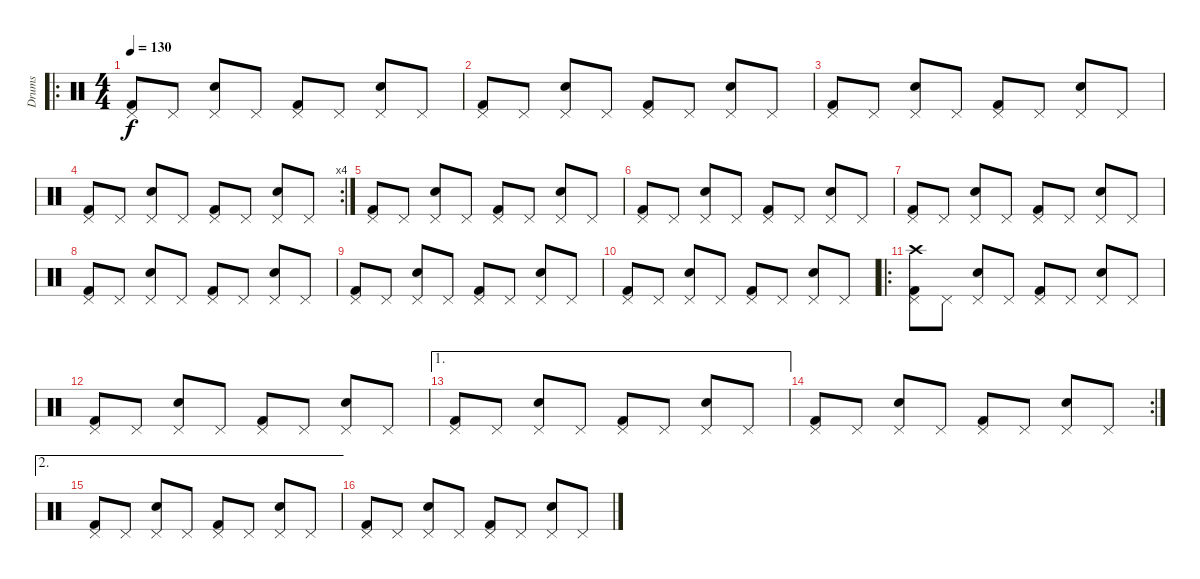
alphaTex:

\track ("Drums" "Drums") {instrument percussion}
\staff {score}
\articulation defaults
\ro
\ts (4 4)
\tempo 130
\clef neutral
\ks c
("Pedal Hi-Hat (hit)" "Kick (hit) 2").8{dy f} "Pedal Hi-Hat (hit)".8 ("Pedal Hi-Hat (hit)" "Snare (hit) 2").8 "Pedal Hi-Hat (hit)".8 ("Pedal Hi-Hat (hit)" "Kick (hit) 2").8 "Pedal Hi-Hat (hit)".8 ("Pedal Hi-Hat (hit)" "Snare (hit) 2").8 "Pedal Hi-Hat (hit)".8 |
("Pedal Hi-Hat (hit)" "Kick (hit) 2").8 "Pedal Hi-Hat (hit)".8 ("Pedal Hi-Hat (hit)" "Snare (hit) 2").8 "Pedal Hi-Hat (hit)".8 ("Pedal Hi-Hat (hit)" "Kick (hit) 2").8 "Pedal Hi-Hat (hit)".8 ("Pedal Hi-Hat (hit)" "Snare (hit) 2").8 "Pedal Hi-Hat (hit)".8 |
("Pedal Hi-Hat (hit)" "Kick (hit) 2").8 "Pedal Hi-Hat (hit)".8 ("Pedal Hi-Hat (hit)" "Snare (hit) 2").8 "Pedal Hi-Hat (hit)".8 ("Pedal Hi-Hat (hit)" "Kick (hit) 2").8 "Pedal Hi-Hat (hit)".8 ("Pedal Hi-Hat (hit)" "Snare (hit) 2").8 "Pedal Hi-Hat (hit)".8 |
\rc 4
("Pedal Hi-Hat (hit)" "Kick (hit) 2").8 "Pedal Hi-Hat (hit)".8 ("Pedal Hi-Hat (hit)" "Snare (hit) 2").8 "Pedal Hi-Hat (hit)".8 ("Pedal Hi-Hat (hit)" "Kick (hit) 2").8 "Pedal Hi-Hat (hit)".8 ("Pedal Hi-Hat (hit)" "Snare (hit) 2").8 "Pedal Hi-Hat (hit)".8 |
("Pedal Hi-Hat (hit)" "Kick (hit) 2").8 "Pedal Hi-Hat (hit)".8 ("Pedal Hi-Hat (hit)" "Snare (hit) 2").8 "Pedal Hi-Hat (hit)".8 ("Pedal Hi-Hat (hit)" "Kick (hit) 2").8 "Pedal Hi-Hat (hit)".8 ("Pedal Hi-Hat (hit)" "Snare (hit) 2").8 "Pedal Hi-Hat (hit)".8 |
("Pedal Hi-Hat (hit)" "Kick (hit) 2").8 "Pedal Hi-Hat (hit)".8 ("Pedal Hi-Hat (hit)" "Snare (hit) 2").8 "Pedal Hi-Hat (hit)".8 ("Pedal Hi-Hat (hit)" "Kick (hit) 2").8 "Pedal Hi-Hat (hit)".8 ("Pedal Hi-Hat (hit)" "Snare (hit) 2").8 "Pedal Hi-Hat (hit)".8 |
("Pedal Hi-Hat (hit)" "Kick (hit) 2").8 "Pedal Hi-Hat (hit)".8 ("Pedal Hi-Hat (hit)" "Snare (hit) 2").8 "Pedal Hi-Hat (hit)".8 ("Pedal Hi-Hat (hit)" "Kick (hit) 2").8 "Pedal Hi-Hat (hit)".8 ("Pedal Hi-Hat (hit)" "Snare (hit) 2").8 "Pedal Hi-Hat (hit)".8 |
("Pedal Hi-Hat (hit)" "Kick (hit) 2").8 "Pedal Hi-Hat (hit)".8 ("Pedal Hi-Hat (hit)" "Snare (hit) 2").8 "Pedal Hi-Hat (hit)".8 ("Pedal Hi-Hat (hit)" "Kick (hit) 2").8 "Pedal Hi-Hat (hit)".8 ("Pedal Hi-Hat (hit)" "Snare (hit) 2").8 "Pedal Hi-Hat (hit)".8 |
("Pedal Hi-Hat (hit)" "Kick (hit) 2").8 "Pedal Hi-Hat (hit)".8 ("Pedal Hi-Hat (hit)" "Snare (hit) 2").8 "Pedal Hi-Hat (hit)".8 ("Pedal Hi-Hat (hit)" "Kick (hit) 2").8 "Pedal Hi-Hat (hit)".8 ("Pedal Hi-Hat (hit)" "Snare (hit) 2").8 "Pedal Hi-Hat (hit)".8 |
("Pedal Hi-Hat (hit)" "Kick (hit) 2").8 "Pedal Hi-Hat (hit)".8 ("Pedal Hi-Hat (hit)" "Snare (hit) 2").8 "Pedal Hi-Hat (hit)".8 ("Pedal Hi-Hat (hit)" "Kick (hit) 2").8 "Pedal Hi-Hat (hit)".8 ("Pedal Hi-Hat (hit)" "Snare (hit) 2").8 "Pedal Hi-Hat (hit)".8 |
\ro
("Pedal Hi-Hat (hit)" "Crash high (hit)" "Kick (hit) 2").8 "Pedal Hi-Hat (hit)".8 ("Pedal Hi-Hat (hit)" "Snare (hit) 2").8 "Pedal Hi-Hat (hit)".8 ("Pedal Hi-Hat (hit)" "Kick (hit) 2").8 "Pedal Hi-Hat (hit)".8 ("Pedal Hi-Hat (hit)" "Snare (hit) 2").8 "Pedal Hi-Hat (hit)".8 |
("Pedal Hi-Hat (hit)" "Kick (hit) 2").8 "Pedal Hi-Hat (hit)".8 ("Pedal Hi-Hat (hit)" "Snare (hit) 2").8 "Pedal Hi-Hat (hit)".8 ("Pedal Hi-Hat (hit)" "Kick (hit) 2").8 "Pedal Hi-Hat (hit)".8 ("Pedal Hi-Hat (hit)" "Snare (hit) 2").8 "Pedal Hi-Hat (hit)".8 |
\ae 1
("Pedal Hi-Hat (hit)" "Kick (hit) 2").8 "Pedal Hi-Hat (hit)".8 ("Pedal Hi-Hat (hit)" "Snare (hit) 2").8 "Pedal Hi-Hat (hit)".8 ("Pedal Hi-Hat (hit)" "Kick (hit) 2").8 "Pedal Hi-Hat (hit)".8 ("Pedal Hi-Hat (hit)" "Snare (hit) 2").8 "Pedal Hi-Hat (hit)".8 |
\rc 2
("Pedal Hi-Hat (hit)" "Kick (hit) 2").8 "Pedal Hi-Hat (hit)".8 ("Pedal Hi-Hat (hit)" "Snare (hit) 2").8 "Pedal Hi-Hat (hit)".8 ("Pedal Hi-Hat (hit)" "Kick (hit) 2").8 "Pedal Hi-Hat (hit)".8 ("Pedal Hi-Hat (hit)" "Snare (hit) 2").8 "Pedal Hi-Hat (hit)".8 |
\ae 2
("Pedal Hi-Hat (hit)" "Kick (hit) 2").8 "Pedal Hi-Hat (hit)".8 ("Pedal Hi-Hat (hit)" "Snare (hit) 2").8 "Pedal Hi-Hat (hit)".8 ("Pedal Hi-Hat (hit)" "Kick (hit) 2").8 "Pedal Hi-Hat (hit)".8 ("Pedal Hi-Hat (hit)" "Snare (hit) 2").8 "Pedal Hi-Hat (hit)".8 |
("Pedal Hi-Hat (hit)" "Kick (hit) 2").8 "Pedal Hi-Hat (hit)".8 ("Pedal Hi-Hat (hit)" "Snare (hit) 2").8 "Pedal Hi-Hat (hit)".8 ("Pedal Hi-Hat (hit)" "Kick (hit) 2").8 "Pedal Hi-Hat (hit)".8 ("Pedal Hi-Hat (hit)" "Snare (hit) 2").8 "Pedal Hi-Hat (hit)".8
